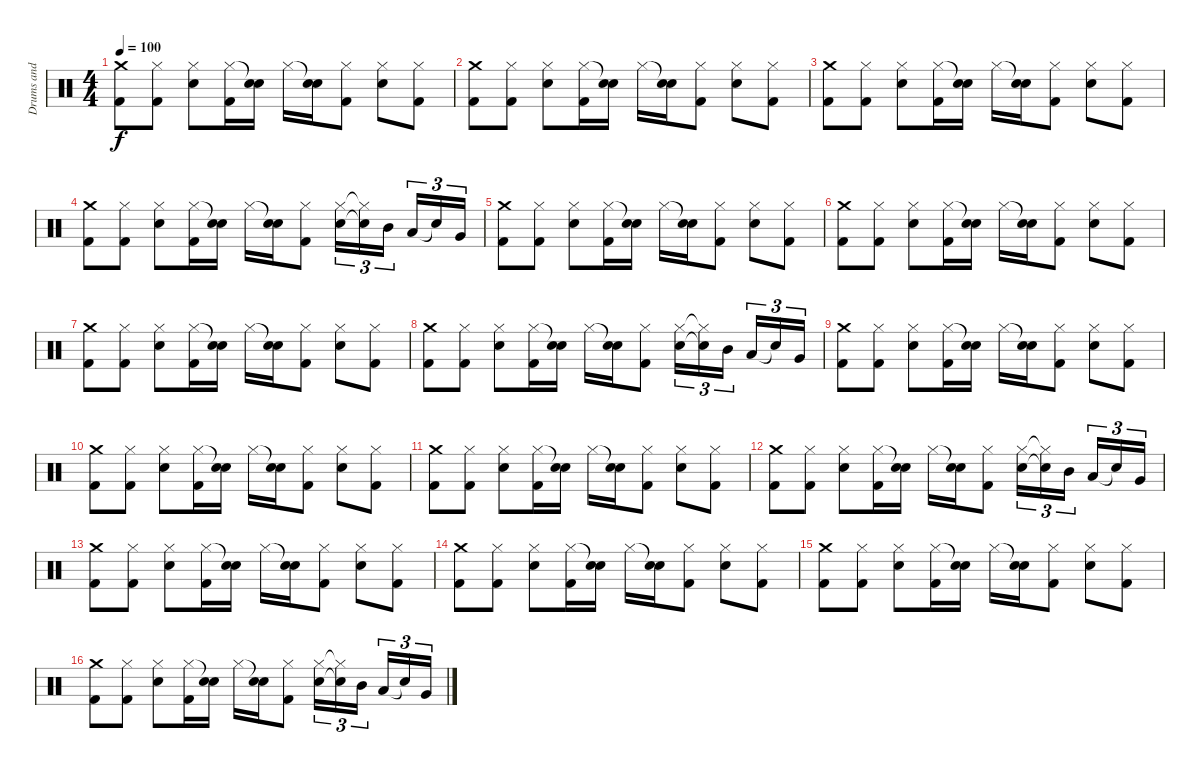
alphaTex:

\track ("Drums and Percussion" "Drums and ") {instrument percussion}
\staff {score}
\articulation defaults
\ts (4 4)
\tempo 100
\clef neutral
\ks c
("Crash medium (hit)" "Kick (hit) 2").8{dy f} ("Hi-Hat (closed)" "Kick (hit) 2").8 ("Hi-Hat (closed)" "Electric Snare (hit)").8 ("Hi-Hat (closed)" "Kick (hit) 2").16 ("Snare (hit)"{t} "Electric Snare (hit)").16 "Hi-Hat (closed)".16 ("Snare (hit)"{t} "Electric Snare (hit)").16 ("Hi-Hat (closed)" "Kick (hit) 2").8 ("Hi-Hat (closed)" "Electric Snare (hit)").8 ("Hi-Hat (closed)" "Kick (hit) 2").8 |
("Crash medium (hit)" "Kick (hit) 2").8 ("Hi-Hat (closed)" "Kick (hit) 2").8 ("Hi-Hat (closed)" "Electric Snare (hit)").8 ("Hi-Hat (closed)" "Kick (hit) 2").16 ("Snare (hit)"{t} "Electric Snare (hit)").16 "Hi-Hat (closed)".16 ("Snare (hit)"{t} "Electric Snare (hit)").16 ("Hi-Hat (closed)" "Kick (hit) 2").8 ("Hi-Hat (closed)" "Electric Snare (hit)").8 ("Hi-Hat (closed)" "Kick (hit) 2").8 |
("Crash medium (hit)" "Kick (hit) 2").8 ("Hi-Hat (closed)" "Kick (hit) 2").8 ("Hi-Hat (closed)" "Electric Snare (hit)").8 ("Hi-Hat (closed)" "Kick (hit) 2").16 ("Snare (hit)"{t} "Electric Snare (hit)").16 "Hi-Hat (closed)".16 ("Snare (hit)"{t} "Electric Snare (hit)").16 ("Hi-Hat (closed)" "Kick (hit) 2").8 ("Hi-Hat (closed)" "Electric Snare (hit)").8 ("Hi-Hat (closed)" "Kick (hit) 2").8 |
("Crash medium (hit)" "Kick (hit) 2").8 ("Hi-Hat (closed)" "Kick (hit) 2").8 ("Hi-Hat (closed)" "Electric Snare (hit)").8 ("Hi-Hat (closed)" "Kick (hit) 2").16 ("Snare (hit)"{t} "Electric Snare (hit)").16 "Hi-Hat (closed)".16 ("Snare (hit)"{t} "Electric Snare (hit)").16 ("Hi-Hat (closed)" "Kick (hit) 2").8 ("Hi-Hat (closed)" "Electric Snare (hit)").16{tu (3 2)} ("Hi-Hat (closed)"{t} "Snare (hit)"{t}).16{tu (3 2)} "Mid Tom (hit)".16{tu (3 2)} "Low Tom (hit)".16{tu (3 2)} "Snare (hit)"{t}.16{tu (3 2)} "Very Low Tom (hit)".16{tu (3 2)} |
("Crash medium (hit)" "Kick (hit) 2").8 ("Hi-Hat (closed)" "Kick (hit) 2").8 ("Hi-Hat (closed)" "Electric Snare (hit)").8 ("Hi-Hat (closed)" "Kick (hit) 2").16 ("Snare (hit)"{t} "Electric Snare (hit)").16 "Hi-Hat (closed)".16 ("Snare (hit)"{t} "Electric Snare (hit)").16 ("Hi-Hat (closed)" "Kick (hit) 2").8 ("Hi-Hat (closed)" "Electric Snare (hit)").8 ("Hi-Hat (closed)" "Kick (hit) 2").8 |
("Crash medium (hit)" "Kick (hit) 2").8 ("Hi-Hat (closed)" "Kick (hit) 2").8 ("Hi-Hat (closed)" "Electric Snare (hit)").8 ("Hi-Hat (closed)" "Kick (hit) 2").16 ("Snare (hit)"{t} "Electric Snare (hit)").16 "Hi-Hat (closed)".16 ("Snare (hit)"{t} "Electric Snare (hit)").16 ("Hi-Hat (closed)" "Kick (hit) 2").8 ("Hi-Hat (closed)" "Electric Snare (hit)").8 ("Hi-Hat (closed)" "Kick (hit) 2").8 |
("Crash medium (hit)" "Kick (hit) 2").8 ("Hi-Hat (closed)" "Kick (hit) 2").8 ("Hi-Hat (closed)" "Electric Snare (hit)").8 ("Hi-Hat (closed)" "Kick (hit) 2").16 ("Snare (hit)"{t} "Electric Snare (hit)").16 "Hi-Hat (closed)".16 ("Snare (hit)"{t} "Electric Snare (hit)").16 ("Hi-Hat (closed)" "Kick (hit) 2").8 ("Hi-Hat (closed)" "Electric Snare (hit)").8 ("Hi-Hat (closed)" "Kick (hit) 2").8 |
("Crash medium (hit)" "Kick (hit) 2").8 ("Hi-Hat (closed)" "Kick (hit) 2").8 ("Hi-Hat (closed)" "Electric Snare (hit)").8 ("Hi-Hat (closed)" "Kick (hit) 2").16 ("Snare (hit)"{t} "Electric Snare (hit)").16 "Hi-Hat (closed)".16 ("Snare (hit)"{t} "Electric Snare (hit)").16 ("Hi-Hat (closed)" "Kick (hit) 2").8 ("Hi-Hat (closed)" "Electric Snare (hit)").16{tu (3 2)} ("Hi-Hat (closed)"{t} "Snare (hit)"{t}).16{tu (3 2)} "Mid Tom (hit)".16{tu (3 2)} "Low Tom (hit)".16{tu (3 2)} "Snare (hit)"{t}.16{tu (3 2)} "Very Low Tom (hit)".16{tu (3 2)} |
("Crash medium (hit)" "Kick (hit) 2").8 ("Hi-Hat (closed)" "Kick (hit) 2").8 ("Hi-Hat (closed)" "Electric Snare (hit)").8 ("Hi-Hat (closed)" "Kick (hit) 2").16 ("Snare (hit)"{t} "Electric Snare (hit)").16 "Hi-Hat (closed)".16 ("Snare (hit)"{t} "Electric Snare (hit)").16 ("Hi-Hat (closed)" "Kick (hit) 2").8 ("Hi-Hat (closed)" "Electric Snare (hit)").8 ("Hi-Hat (closed)" "Kick (hit) 2").8 |
("Crash medium (hit)" "Kick (hit) 2").8 ("Hi-Hat (closed)" "Kick (hit) 2").8 ("Hi-Hat (closed)" "Electric Snare (hit)").8 ("Hi-Hat (closed)" "Kick (hit) 2").16 ("Snare (hit)"{t} "Electric Snare (hit)").16 "Hi-Hat (closed)".16 ("Snare (hit)"{t} "Electric Snare (hit)").16 ("Hi-Hat (closed)" "Kick (hit) 2").8 ("Hi-Hat (closed)" "Electric Snare (hit)").8 ("Hi-Hat (closed)" "Kick (hit) 2").8 |
("Crash medium (hit)" "Kick (hit) 2").8 ("Hi-Hat (closed)" "Kick (hit) 2").8 ("Hi-Hat (closed)" "Electric Snare (hit)").8 ("Hi-Hat (closed)" "Kick (hit) 2").16 ("Snare (hit)"{t} "Electric Snare (hit)").16 "Hi-Hat (closed)".16 ("Snare (hit)"{t} "Electric Snare (hit)").16 ("Hi-Hat (closed)" "Kick (hit) 2").8 ("Hi-Hat (closed)" "Electric Snare (hit)").8 ("Hi-Hat (closed)" "Kick (hit) 2").8 |
("Crash medium (hit)" "Kick (hit) 2").8 ("Hi-Hat (closed)" "Kick (hit) 2").8 ("Hi-Hat (closed)" "Electric Snare (hit)").8 ("Hi-Hat (closed)" "Kick (hit) 2").16 ("Snare (hit)"{t} "Electric Snare (hit)").16 "Hi-Hat (closed)".16 ("Snare (hit)"{t} "Electric Snare (hit)").16 ("Hi-Hat (closed)" "Kick (hit) 2").8 ("Hi-Hat (closed)" "Electric Snare (hit)").16{tu (3 2)} ("Hi-Hat (closed)"{t} "Snare (hit)"{t}).16{tu (3 2)} "Mid Tom (hit)".16{tu (3 2)} "Low Tom (hit)".16{tu (3 2)} "Snare (hit)"{t}.16{tu (3 2)} "Very Low Tom (hit)".16{tu (3 2)} |
("Crash medium (hit)" "Kick (hit) 2").8 ("Hi-Hat (closed)" "Kick (hit) 2").8 ("Hi-Hat (closed)" "Electric Snare (hit)").8 ("Hi-Hat (closed)" "Kick (hit) 2").16 ("Snare (hit)"{t} "Electric Snare (hit)").16 "Hi-Hat (closed)".16 ("Snare (hit)"{t} "Electric Snare (hit)").16 ("Hi-Hat (closed)" "Kick (hit) 2").8 ("Hi-Hat (closed)" "Electric Snare (hit)").8 ("Hi-Hat (closed)" "Kick (hit) 2").8 |
("Crash medium (hit)" "Kick (hit) 2").8 ("Hi-Hat (closed)" "Kick (hit) 2").8 ("Hi-Hat (closed)" "Electric Snare (hit)").8 ("Hi-Hat (closed)" "Kick (hit) 2").16 ("Snare (hit)"{t} "Electric Snare (hit)").16 "Hi-Hat (closed)".16 ("Snare (hit)"{t} "Electric Snare (hit)").16 ("Hi-Hat (closed)" "Kick (hit) 2").8 ("Hi-Hat (closed)" "Electric Snare (hit)").8 ("Hi-Hat (closed)" "Kick (hit) 2").8 |
("Crash medium (hit)" "Kick (hit) 2").8 ("Hi-Hat (closed)" "Kick (hit) 2").8 ("Hi-Hat (closed)" "Electric Snare (hit)").8 ("Hi-Hat (closed)" "Kick (hit) 2").16 ("Snare (hit)"{t} "Electric Snare (hit)").16 "Hi-Hat (closed)".16 ("Snare (hit)"{t} "Electric Snare (hit)").16 ("Hi-Hat (closed)" "Kick (hit) 2").8 ("Hi-Hat (closed)" "Electric Snare (hit)").8 ("Hi-Hat (closed)" "Kick (hit) 2").8 |
("Crash medium (hit)" "Kick (hit) 2").8 ("Hi-Hat (closed)" "Kick (hit) 2").8 ("Hi-Hat (closed)" "Electric Snare (hit)").8 ("Hi-Hat (closed)" "Kick (hit) 2").16 ("Snare (hit)"{t} "Electric Snare (hit)").16 "Hi-Hat (closed)".16 ("Snare (hit)"{t} "Electric Snare (hit)").16 ("Hi-Hat (closed)" "Kick (hit) 2").8 ("Hi-Hat (closed)" "Electric Snare (hit)").16{tu (3 2)} ("Hi-Hat (closed)"{t} "Snare (hit)"{t}).16{tu (3 2)} "Mid Tom (hit)".16{tu (3 2)} "Low Tom (hit)".16{tu (3 2)} "Snare (hit)"{t}.16{tu (3 2)} "Very Low Tom (hit)".16{tu (3 2)}
